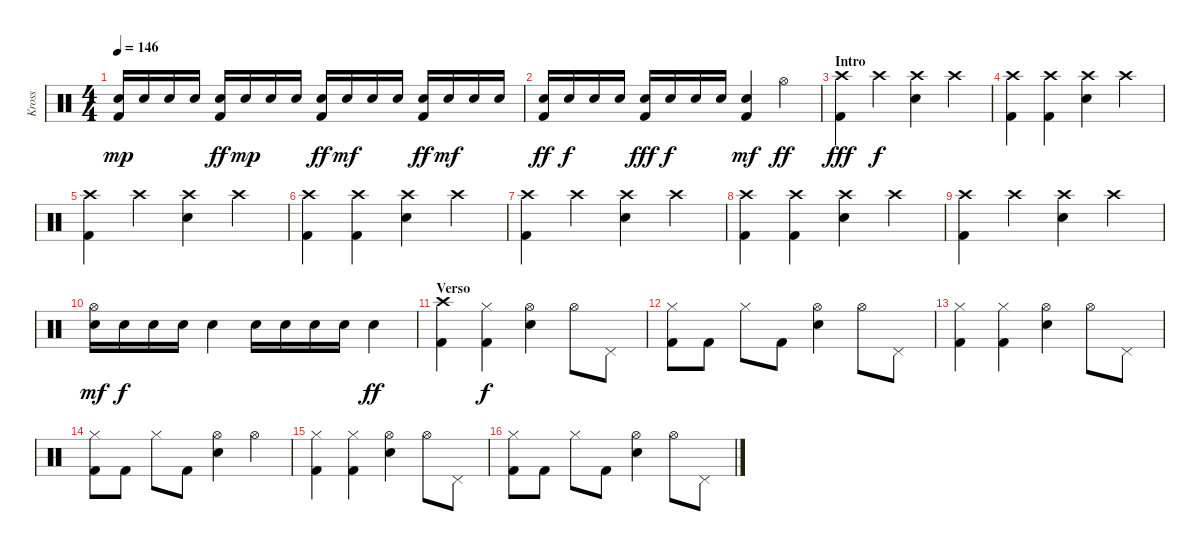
\track ("Kross" "Kross") {instrument percussion}
\staff {score}
\articulation defaults
\ts (4 4)
\tempo 146
\clef neutral
\ks c
("Snare (hit) 2" "Kick (hit) 2").16{dy mp} "Snare (hit) 2".16 "Snare (hit) 2".16 "Snare (hit) 2".16 ("Snare (hit) 2" "Kick (hit) 2").16{dy ff} "Snare (hit) 2".16{dy mp} "Snare (hit) 2".16 "Snare (hit) 2".16 ("Snare (hit) 2" "Kick (hit) 2").16{dy ff} "Snare (hit) 2".16{dy mf} "Snare (hit) 2".16 "Snare (hit) 2".16 ("Snare (hit) 2" "Kick (hit) 2").16{dy ff} "Snare (hit) 2".16{dy mf} "Snare (hit) 2".16 "Snare (hit) 2".16 |
("Snare (hit) 2" "Kick (hit) 2").16{dy ff} "Snare (hit) 2".16{dy f} "Snare (hit) 2".16 "Snare (hit) 2".16 ("Snare (hit) 2" "Kick (hit) 2").16{dy fff} "Snare (hit) 2".16{dy f} "Snare (hit) 2".16 "Snare (hit) 2".16 ("Snare (hit) 2" "Kick (hit) 2").4{dy mf} "Hi-Hat (open)".4{dy ff} |
\section ("" "Intro")
("Crash high (hit)" "Kick (hit) 2").4{dy fff} "Crash high (hit)".4{dy f} ("Crash high (hit)" "Snare (hit) 2").4 "Crash high (hit)".4 |
("Crash high (hit)" "Kick (hit) 2").4 ("Crash high (hit)" "Kick (hit) 2").4 ("Crash high (hit)" "Snare (hit) 2").4 "Crash high (hit)".4 |
("Crash high (hit)" "Kick (hit) 2").4 "Crash high (hit)".4 ("Crash high (hit)" "Snare (hit) 2").4 "Crash high (hit)".4 |
("Crash high (hit)" "Kick (hit) 2").4 ("Crash high (hit)" "Kick (hit) 2").4 ("Crash high (hit)" "Snare (hit) 2").4 "Crash high (hit)".4 |
("Crash high (hit)" "Kick (hit) 2").4 "Crash high (hit)".4 ("Crash high (hit)" "Snare (hit) 2").4 "Crash high (hit)".4 |
("Crash high (hit)" "Kick (hit) 2").4 ("Crash high (hit)" "Kick (hit) 2").4 ("Crash high (hit)" "Snare (hit) 2").4 "Crash high (hit)".4 |
("Crash high (hit)" "Kick (hit) 2").4 "Crash high (hit)".4 ("Crash high (hit)" "Snare (hit) 2").4 "Crash high (hit)".4 |
("Hi-Hat (open)" "Snare (hit) 2").16{dy mf} "Snare (hit) 2".16{dy f} "Snare (hit) 2".16 "Snare (hit) 2".16 "Snare (hit) 2".4 "Snare (hit) 2".16 "Snare (hit) 2".16 "Snare (hit) 2".16 "Snare (hit) 2".16 "Snare (hit) 2".4{dy ff} |
\section ("" "Verso")
("Crash high (hit)" "Kick (hit) 2").4 ("Hi-Hat (closed)" "Kick (hit) 2").4{dy f} ("Hi-Hat (open)" "Snare (hit) 2").4 "Hi-Hat (open)".8 "Pedal Hi-Hat (hit)".8 |
("Hi-Hat (closed)" "Kick (hit) 2").8 "Kick (hit) 2".8 "Hi-Hat (closed)".8 "Kick (hit) 2".8 ("Hi-Hat (open)" "Snare (hit) 2").4 "Hi-Hat (open)".8 "Pedal Hi-Hat (hit)".8 |
("Hi-Hat (closed)" "Kick (hit) 2").4 ("Hi-Hat (closed)" "Kick (hit) 2").4 ("Hi-Hat (open)" "Snare (hit) 2").4 "Hi-Hat (open)".8 "Pedal Hi-Hat (hit)".8 |
("Hi-Hat (closed)" "Kick (hit) 2").8 "Kick (hit) 2".8 "Hi-Hat (closed)".8 "Kick (hit) 2".8 ("Hi-Hat (open)" "Snare (hit) 2").4 "Hi-Hat (open)".4 |
("Hi-Hat (closed)" "Kick (hit) 2").4 ("Hi-Hat (closed)" "Kick (hit) 2").4 ("Hi-Hat (open)" "Snare (hit) 2").4 "Hi-Hat (open)".8 "Pedal Hi-Hat (hit)".8 |
("Hi-Hat (closed)" "Kick (hit) 2").8 "Kick (hit) 2".8 "Hi-Hat (closed)".8 "Kick (hit) 2".8 ("Hi-Hat (open)" "Snare (hit) 2").4 "Hi-Hat (open)".8 "Pedal Hi-Hat (hit)".8
